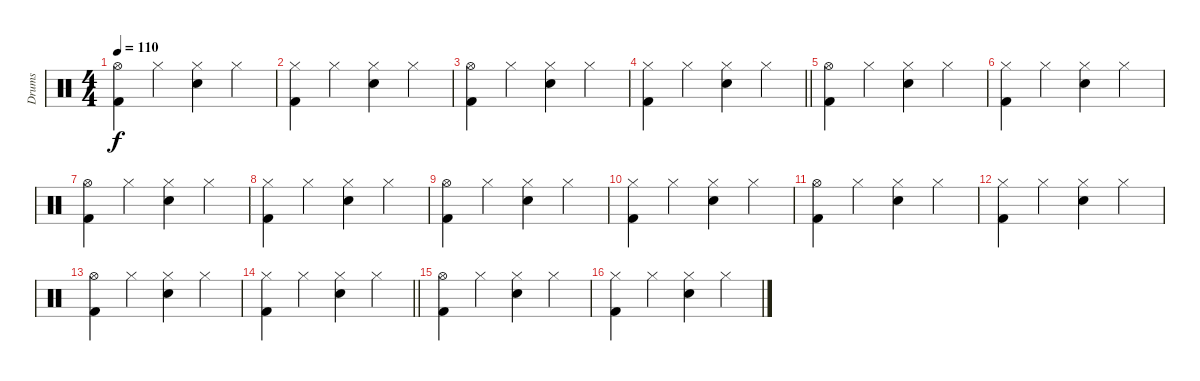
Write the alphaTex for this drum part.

\track ("Drums" "Drums") {instrument percussion}
\staff {score}
\articulation defaults
\ts (4 4)
\tempo 110
\clef neutral
\ks c
("Kick (hit) 2" "Hi-Hat (open)").4{dy f} "Hi-Hat (closed)".4 ("Electric Snare (hit)" "Hi-Hat (closed)").4 "Hi-Hat (closed)".4 |
("Kick (hit) 2" "Hi-Hat (closed)").4 "Hi-Hat (closed)".4 ("Electric Snare (hit)" "Hi-Hat (closed)").4 "Hi-Hat (closed)".4 |
("Kick (hit) 2" "Hi-Hat (open)").4 "Hi-Hat (closed)".4 ("Electric Snare (hit)" "Hi-Hat (closed)").4 "Hi-Hat (closed)".4 |
\barLineRight lightlight
("Kick (hit) 2" "Hi-Hat (closed)").4 "Hi-Hat (closed)".4 ("Electric Snare (hit)" "Hi-Hat (closed)").4 "Hi-Hat (closed)".4 |
("Kick (hit) 2" "Hi-Hat (open)").4 "Hi-Hat (closed)".4 ("Electric Snare (hit)" "Hi-Hat (closed)").4 "Hi-Hat (closed)".4 |
("Kick (hit) 2" "Hi-Hat (closed)").4 "Hi-Hat (closed)".4 ("Electric Snare (hit)" "Hi-Hat (closed)").4 "Hi-Hat (closed)".4 |
("Kick (hit) 2" "Hi-Hat (open)").4 "Hi-Hat (closed)".4 ("Electric Snare (hit)" "Hi-Hat (closed)").4 "Hi-Hat (closed)".4 |
("Kick (hit) 2" "Hi-Hat (closed)").4 "Hi-Hat (closed)".4 ("Electric Snare (hit)" "Hi-Hat (closed)").4 "Hi-Hat (closed)".4 |
("Kick (hit) 2" "Hi-Hat (open)").4 "Hi-Hat (closed)".4 ("Electric Snare (hit)" "Hi-Hat (closed)").4 "Hi-Hat (closed)".4 |
("Kick (hit) 2" "Hi-Hat (closed)").4 "Hi-Hat (closed)".4 ("Electric Snare (hit)" "Hi-Hat (closed)").4 "Hi-Hat (closed)".4 |
("Kick (hit) 2" "Hi-Hat (open)").4 "Hi-Hat (closed)".4 ("Electric Snare (hit)" "Hi-Hat (closed)").4 "Hi-Hat (closed)".4 |
("Kick (hit) 2" "Hi-Hat (closed)").4 "Hi-Hat (closed)".4 ("Electric Snare (hit)" "Hi-Hat (closed)").4 "Hi-Hat (closed)".4 |
("Kick (hit) 2" "Hi-Hat (open)").4 "Hi-Hat (closed)".4 ("Electric Snare (hit)" "Hi-Hat (closed)").4 "Hi-Hat (closed)".4 |
\barLineRight lightlight
("Kick (hit) 2" "Hi-Hat (closed)").4 "Hi-Hat (closed)".4 ("Electric Snare (hit)" "Hi-Hat (closed)").4 "Hi-Hat (closed)".4 |
("Kick (hit) 2" "Hi-Hat (open)").4 "Hi-Hat (closed)".4 ("Electric Snare (hit)" "Hi-Hat (closed)").4 "Hi-Hat (closed)".4 |
("Kick (hit) 2" "Hi-Hat (closed)").4 "Hi-Hat (closed)".4 ("Electric Snare (hit)" "Hi-Hat (closed)").4 "Hi-Hat (closed)".4
